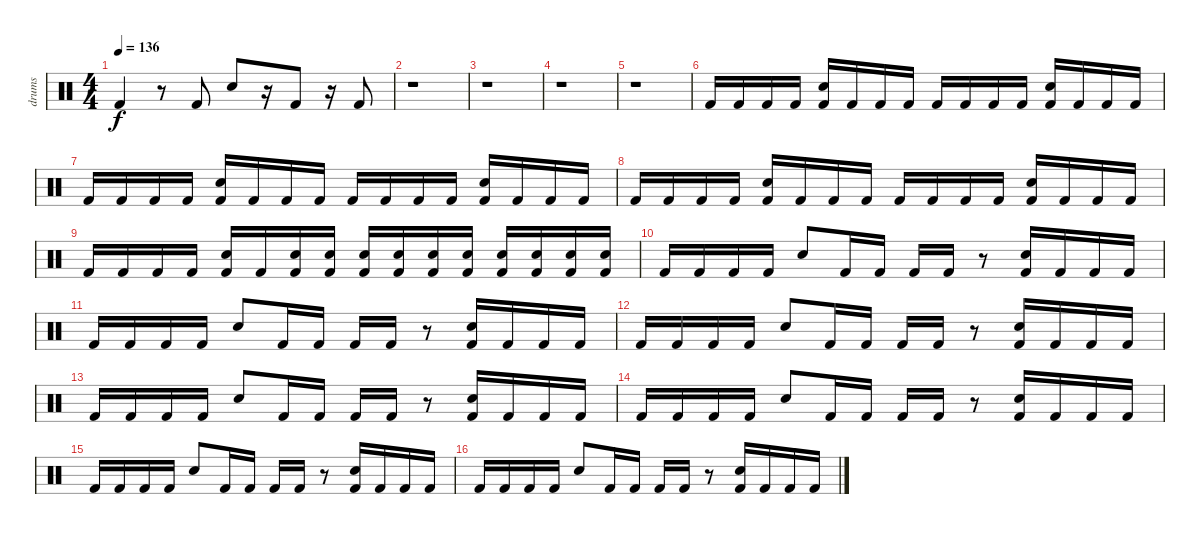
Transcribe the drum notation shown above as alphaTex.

\track ("drums" "drums") {instrument percussion}
\staff {score}
\articulation defaults
\ts (4 4)
\tempo 136
\clef neutral
\ks c "Kick (hit) 2".4{dy f}
r.8 "Kick (hit) 2".8 "Electric Snare (hit)".8 r.16 "Kick (hit) 2".8 r.16 "Kick (hit) 2".8 |
r.1 |
r.1 |
r.1 |
r.1 |
"Kick (hit) 2".16 "Kick (hit) 2".16 "Kick (hit) 2".16 "Kick (hit) 2".16 ("Electric Snare (hit)" "Kick (hit) 2").16 "Kick (hit) 2".16 "Kick (hit) 2".16 "Kick (hit) 2".16 "Kick (hit) 2".16 "Kick (hit) 2".16 "Kick (hit) 2".16 "Kick (hit) 2".16 ("Electric Snare (hit)" "Kick (hit) 2").16 "Kick (hit) 2".16 "Kick (hit) 2".16 "Kick (hit) 2".16 |
"Kick (hit) 2".16 "Kick (hit) 2".16 "Kick (hit) 2".16 "Kick (hit) 2".16 ("Electric Snare (hit)" "Kick (hit) 2").16 "Kick (hit) 2".16 "Kick (hit) 2".16 "Kick (hit) 2".16 "Kick (hit) 2".16 "Kick (hit) 2".16 "Kick (hit) 2".16 "Kick (hit) 2".16 ("Electric Snare (hit)" "Kick (hit) 2").16 "Kick (hit) 2".16 "Kick (hit) 2".16 "Kick (hit) 2".16 |
"Kick (hit) 2".16 "Kick (hit) 2".16 "Kick (hit) 2".16 "Kick (hit) 2".16 ("Electric Snare (hit)" "Kick (hit) 2").16 "Kick (hit) 2".16 "Kick (hit) 2".16 "Kick (hit) 2".16 "Kick (hit) 2".16 "Kick (hit) 2".16 "Kick (hit) 2".16 "Kick (hit) 2".16 ("Electric Snare (hit)" "Kick (hit) 2").16 "Kick (hit) 2".16 "Kick (hit) 2".16 "Kick (hit) 2".16 |
"Kick (hit) 2".16 "Kick (hit) 2".16 "Kick (hit) 2".16 "Kick (hit) 2".16 ("Electric Snare (hit)" "Kick (hit) 2").16 "Kick (hit) 2".16 ("Electric Snare (hit)" "Kick (hit) 2").16 ("Electric Snare (hit)" "Kick (hit) 2").16 ("Electric Snare (hit)" "Kick (hit) 2").16 ("Electric Snare (hit)" "Kick (hit) 2").16 ("Electric Snare (hit)" "Kick (hit) 2").16 ("Electric Snare (hit)" "Kick (hit) 2").16 ("Electric Snare (hit)" "Kick (hit) 2").16 ("Electric Snare (hit)" "Kick (hit) 2").16 ("Electric Snare (hit)" "Kick (hit) 2").16 ("Electric Snare (hit)" "Kick (hit) 2").16 |
"Kick (hit) 2".16 "Kick (hit) 2".16 "Kick (hit) 2".16 "Kick (hit) 2".16 "Electric Snare (hit)".8 "Kick (hit) 2".16 "Kick (hit) 2".16 "Kick (hit) 2".16 "Kick (hit) 2".16 r.8 ("Electric Snare (hit)" "Kick (hit) 2").16 "Kick (hit) 2".16 "Kick (hit) 2".16 "Kick (hit) 2".16 |
"Kick (hit) 2".16 "Kick (hit) 2".16 "Kick (hit) 2".16 "Kick (hit) 2".16 "Electric Snare (hit)".8 "Kick (hit) 2".16 "Kick (hit) 2".16 "Kick (hit) 2".16 "Kick (hit) 2".16 r.8 ("Electric Snare (hit)" "Kick (hit) 2").16 "Kick (hit) 2".16 "Kick (hit) 2".16 "Kick (hit) 2".16 |
"Kick (hit) 2".16 "Kick (hit) 2".16 "Kick (hit) 2".16 "Kick (hit) 2".16 "Electric Snare (hit)".8 "Kick (hit) 2".16 "Kick (hit) 2".16 "Kick (hit) 2".16 "Kick (hit) 2".16 r.8 ("Electric Snare (hit)" "Kick (hit) 2").16 "Kick (hit) 2".16 "Kick (hit) 2".16 "Kick (hit) 2".16 |
"Kick (hit) 2".16 "Kick (hit) 2".16 "Kick (hit) 2".16 "Kick (hit) 2".16 "Electric Snare (hit)".8 "Kick (hit) 2".16 "Kick (hit) 2".16 "Kick (hit) 2".16 "Kick (hit) 2".16 r.8 ("Electric Snare (hit)" "Kick (hit) 2").16 "Kick (hit) 2".16 "Kick (hit) 2".16 "Kick (hit) 2".16 |
"Kick (hit) 2".16 "Kick (hit) 2".16 "Kick (hit) 2".16 "Kick (hit) 2".16 "Electric Snare (hit)".8 "Kick (hit) 2".16 "Kick (hit) 2".16 "Kick (hit) 2".16 "Kick (hit) 2".16 r.8 ("Electric Snare (hit)" "Kick (hit) 2").16 "Kick (hit) 2".16 "Kick (hit) 2".16 "Kick (hit) 2".16 |
"Kick (hit) 2".16 "Kick (hit) 2".16 "Kick (hit) 2".16 "Kick (hit) 2".16 "Electric Snare (hit)".8 "Kick (hit) 2".16 "Kick (hit) 2".16 "Kick (hit) 2".16 "Kick (hit) 2".16 r.8 ("Electric Snare (hit)" "Kick (hit) 2").16 "Kick (hit) 2".16 "Kick (hit) 2".16 "Kick (hit) 2".16 |
"Kick (hit) 2".16 "Kick (hit) 2".16 "Kick (hit) 2".16 "Kick (hit) 2".16 "Electric Snare (hit)".8 "Kick (hit) 2".16 "Kick (hit) 2".16 "Kick (hit) 2".16 "Kick (hit) 2".16 r.8 ("Electric Snare (hit)" "Kick (hit) 2").16 "Kick (hit) 2".16 "Kick (hit) 2".16 "Kick (hit) 2".16
